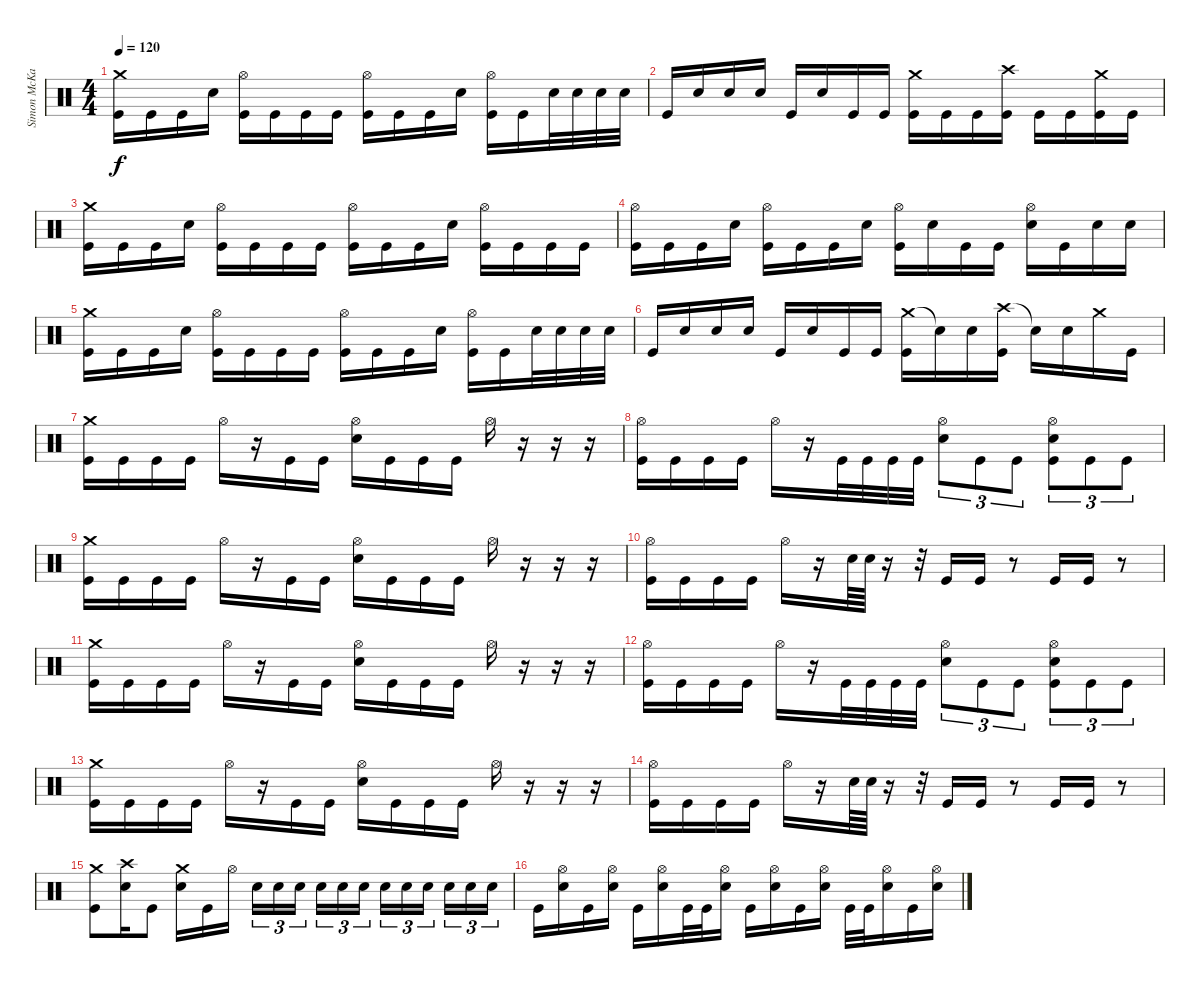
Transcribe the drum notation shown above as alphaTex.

\track ("Simon McKay" "Simon McKa") {instrument percussion}
\staff {score}
\articulation defaults
\ts (4 4)
\tempo 120
\clef neutral
\ks c
("Crash medium (hit)" "Kick (hit)").16{dy f} "Kick (hit)".16 "Kick (hit)".16 "Electric Snare (hit)".16 ("Hi-Hat (open)" "Kick (hit)").16 "Kick (hit)".16 "Kick (hit)".16 "Kick (hit)".16 ("Hi-Hat (open)" "Kick (hit)").16 "Kick (hit)".16 "Kick (hit)".16 "Electric Snare (hit)".16 ("Hi-Hat (open)" "Kick (hit)").16 "Kick (hit)".16 "Electric Snare (hit)".32 "Electric Snare (hit)".32 "Electric Snare (hit)".32 "Electric Snare (hit)".32 |
"Kick (hit)".16 "Electric Snare (hit)".16 "Electric Snare (hit)".16 "Electric Snare (hit)".16 "Kick (hit)".16 "Electric Snare (hit)".16 "Kick (hit)".16 "Kick (hit)".16 ("Crash medium (hit)" "Kick (hit)").16 "Kick (hit)".16 "Kick (hit)".16 ("Crash high (hit)" "Kick (hit)").16 "Kick (hit)".16 "Kick (hit)".16 ("Crash medium (hit)" "Kick (hit)").16 "Kick (hit)".16 |
("Crash medium (hit)" "Kick (hit)").16 "Kick (hit)".16 "Kick (hit)".16 "Electric Snare (hit)".16 ("Hi-Hat (open)" "Kick (hit)").16 "Kick (hit)".16 "Kick (hit)".16 "Kick (hit)".16 ("Hi-Hat (open)" "Kick (hit)").16 "Kick (hit)".16 "Kick (hit)".16 "Electric Snare (hit)".16 ("Hi-Hat (open)" "Kick (hit)").16 "Kick (hit)".16 "Kick (hit)".16 "Kick (hit)".16 |
("Hi-Hat (open)" "Kick (hit)").16 "Kick (hit)".16 "Kick (hit)".16 "Electric Snare (hit)".16 ("Hi-Hat (open)" "Kick (hit)").16 "Kick (hit)".16 "Kick (hit)".16 "Electric Snare (hit)".16 ("Hi-Hat (open)" "Kick (hit)").16 "Electric Snare (hit)".16 "Kick (hit)".16 "Kick (hit)".16 ("Hi-Hat (open)" "Electric Snare (hit)").16 "Kick (hit)".16 "Electric Snare (hit)".16 "Electric Snare (hit)".16 |
("Crash medium (hit)" "Kick (hit)").16 "Kick (hit)".16 "Kick (hit)".16 "Electric Snare (hit)".16 ("Hi-Hat (open)" "Kick (hit)").16 "Kick (hit)".16 "Kick (hit)".16 "Kick (hit)".16 ("Hi-Hat (open)" "Kick (hit)").16 "Kick (hit)".16 "Kick (hit)".16 "Electric Snare (hit)".16 ("Hi-Hat (open)" "Kick (hit)").16 "Kick (hit)".16 "Electric Snare (hit)".32 "Electric Snare (hit)".32 "Electric Snare (hit)".32 "Electric Snare (hit)".32 |
"Kick (hit)".16 "Electric Snare (hit)".16 "Electric Snare (hit)".16 "Electric Snare (hit)".16 "Kick (hit)".16 "Electric Snare (hit)".16 "Kick (hit)".16 "Kick (hit)".16 ("Crash medium (hit)" "Kick (hit)").16 "Snare (hit)"{t}.16 "Electric Snare (hit)".16 ("Crash high (hit)" "Kick (hit)").16 "Snare (hit)"{t}.16 "Electric Snare (hit)".16 "Crash medium (hit)".16 "Kick (hit)".16 |
("Crash medium (hit)" "Kick (hit)").16 "Kick (hit)".16 "Kick (hit)".16 "Kick (hit)".16 "Hi-Hat (open)".16 r.16 "Kick (hit)".16 "Kick (hit)".16 ("Hi-Hat (open)" "Electric Snare (hit)").16 "Kick (hit)".16 "Kick (hit)".16 "Kick (hit)".16 "Hi-Hat (open)".16 r.16 r.16 r.16 |
("Hi-Hat (open)" "Kick (hit)").16 "Kick (hit)".16 "Kick (hit)".16 "Kick (hit)".16 "Hi-Hat (open)".16 r.16 "Kick (hit)".32 "Kick (hit)".32 "Kick (hit)".32 "Kick (hit)".32 ("Hi-Hat (open)" "Electric Snare (hit)").8{tu (3 2)} "Kick (hit)".8{tu (3 2)} "Kick (hit)".8{tu (3 2)} ("Hi-Hat (open)" "Electric Snare (hit)" "Kick (hit)").8{tu (3 2)} "Kick (hit)".8{tu (3 2)} "Kick (hit)".8{tu (3 2)} |
("Crash medium (hit)" "Kick (hit)").16 "Kick (hit)".16 "Kick (hit)".16 "Kick (hit)".16 "Hi-Hat (open)".16 r.16 "Kick (hit)".16 "Kick (hit)".16 ("Hi-Hat (open)" "Electric Snare (hit)").16 "Kick (hit)".16 "Kick (hit)".16 "Kick (hit)".16 "Hi-Hat (open)".16 r.16 r.16 r.16 |
("Hi-Hat (open)" "Kick (hit)").16 "Kick (hit)".16 "Kick (hit)".16 "Kick (hit)".16 "Hi-Hat (open)".16 r.16 "Electric Snare (hit)".64 "Electric Snare (hit)".64 r.16 r.32 "Kick (hit)".16 "Kick (hit)".16 r.8 "Kick (hit)".16 "Kick (hit)".16 r.8 |
("Crash medium (hit)" "Kick (hit)").16 "Kick (hit)".16 "Kick (hit)".16 "Kick (hit)".16 "Hi-Hat (open)".16 r.16 "Kick (hit)".16 "Kick (hit)".16 ("Hi-Hat (open)" "Electric Snare (hit)").16 "Kick (hit)".16 "Kick (hit)".16 "Kick (hit)".16 "Hi-Hat (open)".16 r.16 r.16 r.16 |
("Hi-Hat (open)" "Kick (hit)").16 "Kick (hit)".16 "Kick (hit)".16 "Kick (hit)".16 "Hi-Hat (open)".16 r.16 "Kick (hit)".32 "Kick (hit)".32 "Kick (hit)".32 "Kick (hit)".32 ("Hi-Hat (open)" "Electric Snare (hit)").8{tu (3 2)} "Kick (hit)".8{tu (3 2)} "Kick (hit)".8{tu (3 2)} ("Hi-Hat (open)" "Electric Snare (hit)" "Kick (hit)").8{tu (3 2)} "Kick (hit)".8{tu (3 2)} "Kick (hit)".8{tu (3 2)} |
("Crash medium (hit)" "Kick (hit)").16 "Kick (hit)".16 "Kick (hit)".16 "Kick (hit)".16 "Hi-Hat (open)".16 r.16 "Kick (hit)".16 "Kick (hit)".16 ("Hi-Hat (open)" "Electric Snare (hit)").16 "Kick (hit)".16 "Kick (hit)".16 "Kick (hit)".16 "Hi-Hat (open)".16 r.16 r.16 r.16 |
("Hi-Hat (open)" "Kick (hit)").16 "Kick (hit)".16 "Kick (hit)".16 "Kick (hit)".16 "Hi-Hat (open)".16 r.16 "Electric Snare (hit)".64 "Electric Snare (hit)".64 r.16 r.32 "Kick (hit)".16 "Kick (hit)".16 r.8 "Kick (hit)".16 "Kick (hit)".16 r.8 |
("Crash medium (hit)" "Kick (hit)").8 ("Crash high (hit)" "Electric Snare (hit)").16 "Kick (hit)".8 ("Crash medium (hit)" "Electric Snare (hit)").16 "Kick (hit)".16 "Hi-Hat (open)".16 "Electric Snare (hit)".16{tu (3 2)} "Electric Snare (hit)".16{tu (3 2)} "Electric Snare (hit)".16{tu (3 2) beam splitsecondary} "Electric Snare (hit)".16{tu (3 2)} "Electric Snare (hit)".16{tu (3 2)} "Electric Snare (hit)".16{tu (3 2)} "Electric Snare (hit)".16{tu (3 2)} "Electric Snare (hit)".16{tu (3 2)} "Electric Snare (hit)".16{tu (3 2) beam splitsecondary} "Electric Snare (hit)".16{tu (3 2)} "Electric Snare (hit)".16{tu (3 2)} "Electric Snare (hit)".16{tu (3 2)} |
"Kick (hit)".16 ("Hi-Hat (open)" "Electric Snare (hit)").16 "Kick (hit)".16 ("Hi-Hat (open)" "Electric Snare (hit)").16 "Kick (hit)".16 ("Hi-Hat (open)" "Electric Snare (hit)").16 "Kick (hit)".32 "Kick (hit)".32 ("Hi-Hat (open)" "Electric Snare (hit)").16 "Kick (hit)".16 ("Hi-Hat (open)" "Electric Snare (hit)").16 "Kick (hit)".16 ("Hi-Hat (open)" "Electric Snare (hit)").16 "Kick (hit)".32 "Kick (hit)".32 ("Hi-Hat (open)" "Electric Snare (hit)").16 "Kick (hit)".16 ("Hi-Hat (open)" "Electric Snare (hit)").16
